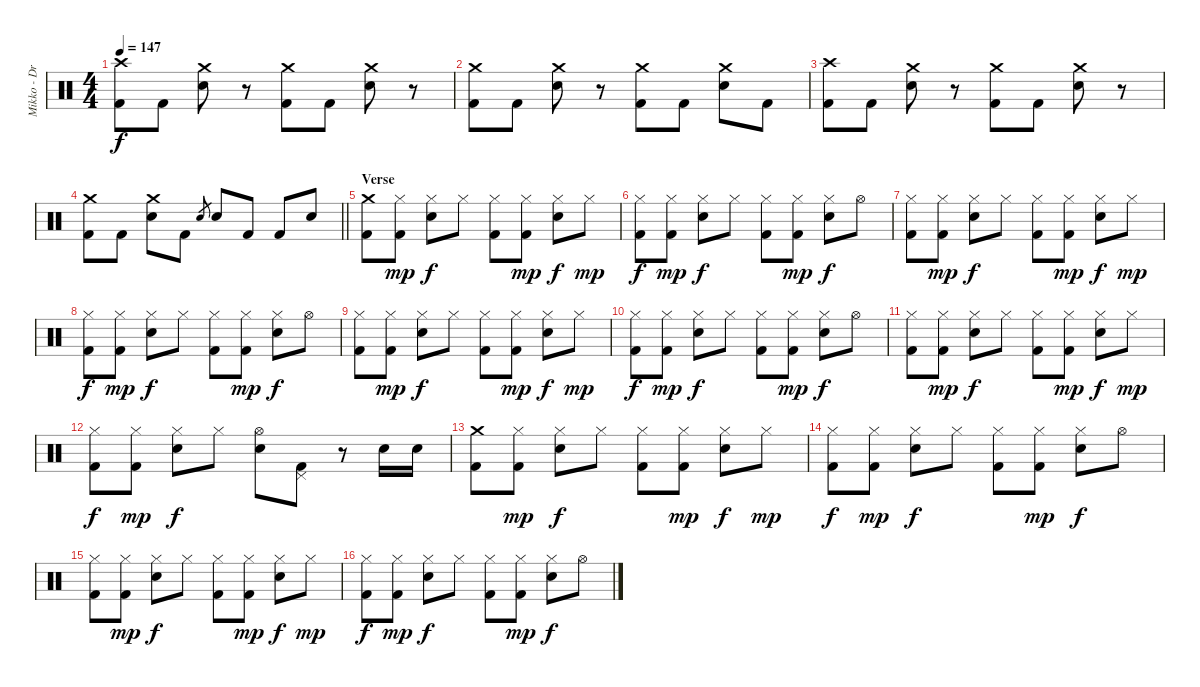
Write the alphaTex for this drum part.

\track ("Mikko - Drums" "Mikko - Dr") {instrument percussion}
\staff {score}
\articulation defaults
\ts (4 4)
\tempo 147
\clef neutral
\ks c
("Crash high (hit)" "Kick (hit) 2").8{dy f} "Kick (hit) 2".8 ("Crash medium (hit)" "Snare (hit) 2").8 r.8 ("Crash medium (hit)" "Kick (hit) 2").8 "Kick (hit) 2".8 ("Crash medium (hit)" "Snare (hit) 2").8 r.8 |
("Crash medium (hit)" "Kick (hit) 2").8 "Kick (hit) 2".8 ("Crash medium (hit)" "Snare (hit) 2").8 r.8 ("Crash medium (hit)" "Kick (hit) 2").8 "Kick (hit) 2".8 ("Crash medium (hit)" "Snare (hit) 2").8 "Kick (hit) 2".8 |
("Crash high (hit)" "Kick (hit) 2").8 "Kick (hit) 2".8 ("Crash medium (hit)" "Snare (hit) 2").8 r.8 ("Crash medium (hit)" "Kick (hit) 2").8 "Kick (hit) 2".8 ("Crash medium (hit)" "Snare (hit) 2").8 r.8 |
\barLineRight lightlight
("Crash medium (hit)" "Kick (hit) 2").8 "Kick (hit) 2".8 ("Crash medium (hit)" "Snare (hit) 2").8 "Kick (hit) 2".8 "Snare (hit) 2".8{gr} "Snare (hit) 2".8 "Kick (hit) 2".8 "Kick (hit) 2".8 "Snare (hit) 2".8 |
\section ("" "Verse")
("Crash medium (hit)" "Kick (hit) 2").8 ("Hi-Hat (closed)" "Kick (hit) 2").8{dy mp} ("Hi-Hat (closed)" "Snare (hit) 2").8{dy f} "Hi-Hat (closed)".8 ("Hi-Hat (closed)" "Kick (hit) 2").8 ("Hi-Hat (closed)" "Kick (hit) 2").8{dy mp} ("Hi-Hat (closed)" "Snare (hit) 2").8{dy f} "Hi-Hat (closed)".8{dy mp} |
("Hi-Hat (closed)" "Kick (hit) 2").8{dy f} ("Hi-Hat (closed)" "Kick (hit) 2").8{dy mp} ("Hi-Hat (closed)" "Snare (hit) 2").8{dy f} "Hi-Hat (closed)".8 ("Hi-Hat (closed)" "Kick (hit) 2").8 ("Hi-Hat (closed)" "Kick (hit) 2").8{dy mp} ("Hi-Hat (closed)" "Snare (hit) 2").8{dy f} "Hi-Hat (open)".8 |
("Hi-Hat (closed)" "Kick (hit) 2").8 ("Hi-Hat (closed)" "Kick (hit) 2").8{dy mp} ("Hi-Hat (closed)" "Snare (hit) 2").8{dy f} "Hi-Hat (closed)".8 ("Hi-Hat (closed)" "Kick (hit) 2").8 ("Hi-Hat (closed)" "Kick (hit) 2").8{dy mp} ("Hi-Hat (closed)" "Snare (hit) 2").8{dy f} "Hi-Hat (closed)".8{dy mp} |
("Hi-Hat (closed)" "Kick (hit) 2").8{dy f} ("Hi-Hat (closed)" "Kick (hit) 2").8{dy mp} ("Hi-Hat (closed)" "Snare (hit) 2").8{dy f} "Hi-Hat (closed)".8 ("Hi-Hat (closed)" "Kick (hit) 2").8 ("Hi-Hat (closed)" "Kick (hit) 2").8{dy mp} ("Hi-Hat (closed)" "Snare (hit) 2").8{dy f} "Hi-Hat (open)".8 |
("Hi-Hat (closed)" "Kick (hit) 2").8 ("Hi-Hat (closed)" "Kick (hit) 2").8{dy mp} ("Hi-Hat (closed)" "Snare (hit) 2").8{dy f} "Hi-Hat (closed)".8 ("Hi-Hat (closed)" "Kick (hit) 2").8 ("Hi-Hat (closed)" "Kick (hit) 2").8{dy mp} ("Hi-Hat (closed)" "Snare (hit) 2").8{dy f} "Hi-Hat (closed)".8{dy mp} |
("Hi-Hat (closed)" "Kick (hit) 2").8{dy f} ("Hi-Hat (closed)" "Kick (hit) 2").8{dy mp} ("Hi-Hat (closed)" "Snare (hit) 2").8{dy f} "Hi-Hat (closed)".8 ("Hi-Hat (closed)" "Kick (hit) 2").8 ("Hi-Hat (closed)" "Kick (hit) 2").8{dy mp} ("Hi-Hat (closed)" "Snare (hit) 2").8{dy f} "Hi-Hat (open)".8 |
("Hi-Hat (closed)" "Kick (hit) 2").8 ("Hi-Hat (closed)" "Kick (hit) 2").8{dy mp} ("Hi-Hat (closed)" "Snare (hit) 2").8{dy f} "Hi-Hat (closed)".8 ("Hi-Hat (closed)" "Kick (hit) 2").8 ("Hi-Hat (closed)" "Kick (hit) 2").8{dy mp} ("Hi-Hat (closed)" "Snare (hit) 2").8{dy f} "Hi-Hat (closed)".8{dy mp} |
("Hi-Hat (closed)" "Kick (hit) 2").8{dy f} ("Hi-Hat (closed)" "Kick (hit) 2").8{dy mp} ("Hi-Hat (closed)" "Snare (hit) 2").8{dy f} "Hi-Hat (closed)".8 ("Hi-Hat (open)" "Snare (hit) 2").8 ("Pedal Hi-Hat (hit)" "Kick (hit) 2").8 r.8 "Snare (hit) 2".16 "Snare (hit) 2".16 |
("Crash medium (hit)" "Kick (hit) 2").8 ("Hi-Hat (closed)" "Kick (hit) 2").8{dy mp} ("Hi-Hat (closed)" "Snare (hit) 2").8{dy f} "Hi-Hat (closed)".8 ("Hi-Hat (closed)" "Kick (hit) 2").8 ("Hi-Hat (closed)" "Kick (hit) 2").8{dy mp} ("Hi-Hat (closed)" "Snare (hit) 2").8{dy f} "Hi-Hat (closed)".8{dy mp} |
("Hi-Hat (closed)" "Kick (hit) 2").8{dy f} ("Hi-Hat (closed)" "Kick (hit) 2").8{dy mp} ("Hi-Hat (closed)" "Snare (hit) 2").8{dy f} "Hi-Hat (closed)".8 ("Hi-Hat (closed)" "Kick (hit) 2").8 ("Hi-Hat (closed)" "Kick (hit) 2").8{dy mp} ("Hi-Hat (closed)" "Snare (hit) 2").8{dy f} "Hi-Hat (open)".8 |
("Hi-Hat (closed)" "Kick (hit) 2").8 ("Hi-Hat (closed)" "Kick (hit) 2").8{dy mp} ("Hi-Hat (closed)" "Snare (hit) 2").8{dy f} "Hi-Hat (closed)".8 ("Hi-Hat (closed)" "Kick (hit) 2").8 ("Hi-Hat (closed)" "Kick (hit) 2").8{dy mp} ("Hi-Hat (closed)" "Snare (hit) 2").8{dy f} "Hi-Hat (closed)".8{dy mp} |
("Hi-Hat (closed)" "Kick (hit) 2").8{dy f} ("Hi-Hat (closed)" "Kick (hit) 2").8{dy mp} ("Hi-Hat (closed)" "Snare (hit) 2").8{dy f} "Hi-Hat (closed)".8 ("Hi-Hat (closed)" "Kick (hit) 2").8 ("Hi-Hat (closed)" "Kick (hit) 2").8{dy mp} ("Hi-Hat (closed)" "Snare (hit) 2").8{dy f} "Hi-Hat (open)".8
